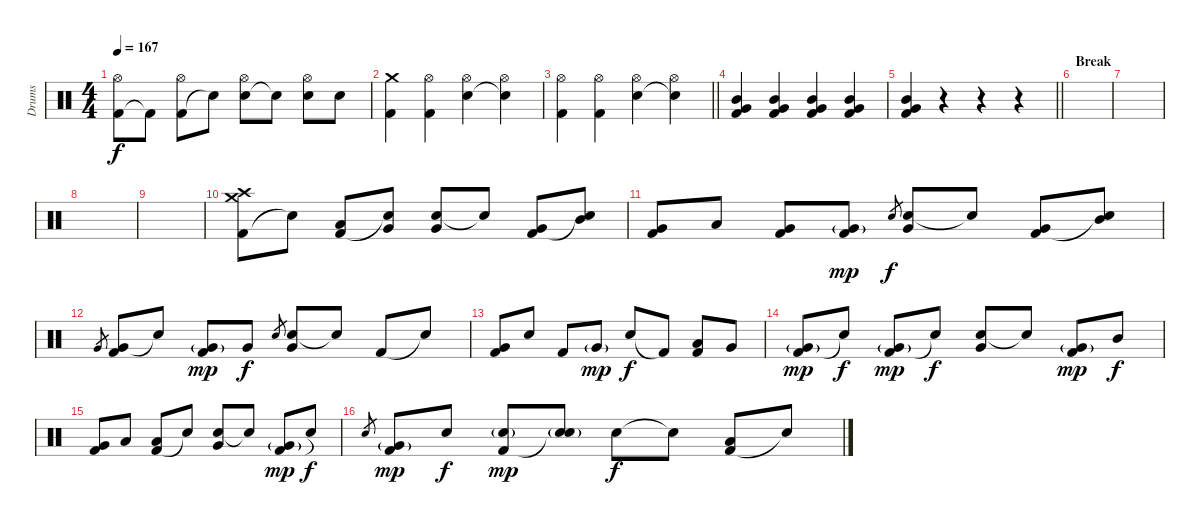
\track ("Drums" "Drums") {instrument percussion}
\staff {score}
\articulation defaults
\ts (4 4)
\tempo 167
\clef neutral
\ks c
("Kick (hit) 2" "Hi-Hat (open)").8{dy f} "Kick (hit) 2"{t}.8 ("Kick (hit) 2" "Hi-Hat (open)").8 "Snare (hit)"{t}.8 ("Electric Snare (hit)" "Hi-Hat (open)").8 "Snare (hit)"{t}.8 ("Electric Snare (hit)" "Hi-Hat (open)").8 "Electric Snare (hit)".8 |
("Kick (hit) 2" "Crash medium (hit)").4 ("Kick (hit) 2" "Hi-Hat (open)").4 ("Electric Snare (hit)" "Hi-Hat (open)").4 ("Snare (hit)"{t} "Hi-Hat (open)").4 |
\barLineRight lightlight
("Kick (hit) 2" "Hi-Hat (open)").4 ("Kick (hit) 2" "Hi-Hat (open)").4 ("Electric Snare (hit)" "Hi-Hat (open)").4 ("Snare (hit)"{t} "Hi-Hat (open)").4 |
("Mid Tom (hit)" "Very Low Tom (hit)" "Kick (hit) 2").4 ("Mid Tom (hit)" "Very Low Tom (hit)" "Kick (hit) 2").4 ("Mid Tom (hit)" "Very Low Tom (hit)" "Kick (hit) 2").4 ("Mid Tom (hit)" "Very Low Tom (hit)" "Kick (hit) 2").4 |
\barLineRight lightlight
("Mid Tom (hit)" "Very Low Tom (hit)" "Kick (hit) 2").4 r.4 r.4 r.4 |
\section ("" "Break")
|
|
|
|
("Kick (hit) 2" "Crash medium (hit)" "Crash high (hit)").8 "Snare (hit)"{t}.8 ("Kick (hit) 2" "Low Tom (hit)").8 ("Snare (hit)"{t} "Very Low Tom (hit)").8 ("Electric Snare (hit)" "Very Low Tom (hit)").8 "Snare (hit)"{t}.8 ("Kick (hit) 2" "Very Low Tom (hit)").8 ("Snare (hit)"{t} "Mid Tom (hit)").8 |
("Kick (hit) 2" "Very Low Tom (hit)").8 "Low Tom (hit)".8 ("Kick (hit) 2" "Very Low Tom (hit)").8 ("Kick (hit) 2" "Very Low Tom (hit)"{g}).8{dy mp} "Electric Snare (hit)".8{gr dy f} ("Electric Snare (hit)" "Very Low Tom (hit)").8 "Snare (hit)"{t}.8 ("Kick (hit) 2" "Very Low Tom (hit)").8 ("Snare (hit)"{t} "Mid Tom (hit)").8 |
"Very Low Tom (hit)".8{gr} ("Very Low Tom (hit)" "Kick (hit) 2").8 "Snare (hit)"{t}.8 ("Kick (hit) 2" "Very Low Tom (hit)"{g}).8{dy mp} "Very Low Tom (hit)".8{dy f} "Electric Snare (hit)".8{gr} ("Electric Snare (hit)" "Very Low Tom (hit)").8 "Snare (hit)"{t}.8 "Kick (hit) 2".8 "Snare (hit)"{t}.8 |
("Kick (hit) 2" "Very Low Tom (hit)").8 "Electric Snare (hit)".8 "Kick (hit) 2".8 "Very Low Tom (hit)"{g}.8{dy mp} "Electric Snare (hit)".8{dy f} "Kick (hit) 2"{t}.8 ("Kick (hit) 2" "Low Tom (hit)").8 "Very Low Tom (hit)".8 |
("Kick (hit) 2" "Very Low Tom (hit)"{g}).8{dy mp} "Snare (hit)"{t}.8{dy f} ("Kick (hit) 2" "Very Low Tom (hit)"{g}).8{dy mp} "Snare (hit)"{t}.8{dy f} ("Electric Snare (hit)" "Very Low Tom (hit)").8 "Snare (hit)"{t}.8 ("Kick (hit) 2" "Very Low Tom (hit)"{g}).8{dy mp} "Mid Tom (hit)".8{dy f} |
("Kick (hit) 2" "Very Low Tom (hit)").8 "Low Tom (hit)".8 ("Kick (hit) 2" "Low Tom (hit)").8 "Snare (hit)"{t}.8 ("Electric Snare (hit)" "Very Low Tom (hit)").8 "Snare (hit)"{t}.8 ("Kick (hit) 2" "Very Low Tom (hit)"{g}).8{dy mp} "Snare (hit)"{t}.8{dy f} |
"Electric Snare (hit)".8{gr} ("Kick (hit) 2" "Very Low Tom (hit)"{g}).8{dy mp} "Electric Snare (hit)".8{dy f} ("Kick (hit) 2" "Electric Snare (hit)"{g}).8{dy mp} ("Snare (hit)"{t} "Electric Snare (hit)"{g}).8 "Electric Snare (hit)".8{dy f} "Snare (hit)"{t}.8 ("Kick (hit) 2" "Low Tom (hit)").8 "Snare (hit)"{t}.8
